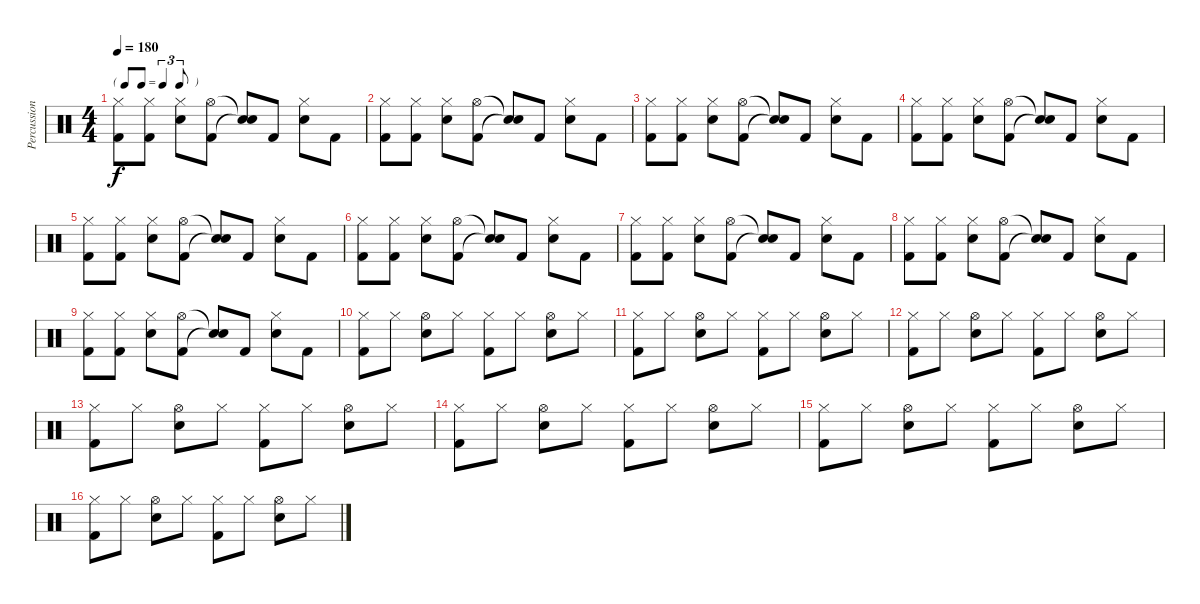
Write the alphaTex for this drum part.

\track ("Percussions" "Percussion") {instrument percussion}
\staff {score}
\articulation defaults
\ts (4 4)
\tf triplet8th
\tempo 180
\clef neutral
\ks c
("Hi-Hat (closed)" "Kick (hit) 2").8{dy f} ("Hi-Hat (closed)" "Kick (hit) 2").8 ("Hi-Hat (closed)" "Electric Snare (hit)").8 ("Hi-Hat (open)" "Kick (hit) 2").8 ("Snare (hit)"{t} "Snare (hit)"{t}).8 "Kick (hit) 2".8 ("Hi-Hat (closed)" "Electric Snare (hit)").8 "Kick (hit) 2".8 |
("Hi-Hat (closed)" "Kick (hit) 2").8 ("Hi-Hat (closed)" "Kick (hit) 2").8 ("Hi-Hat (closed)" "Electric Snare (hit)").8 ("Hi-Hat (open)" "Kick (hit) 2").8 ("Snare (hit)"{t} "Snare (hit)"{t}).8 "Kick (hit) 2".8 ("Hi-Hat (closed)" "Electric Snare (hit)").8 "Kick (hit) 2".8 |
("Hi-Hat (closed)" "Kick (hit) 2").8 ("Hi-Hat (closed)" "Kick (hit) 2").8 ("Hi-Hat (closed)" "Electric Snare (hit)").8 ("Hi-Hat (open)" "Kick (hit) 2").8 ("Snare (hit)"{t} "Snare (hit)"{t}).8 "Kick (hit) 2".8 ("Hi-Hat (closed)" "Electric Snare (hit)").8 "Kick (hit) 2".8 |
("Hi-Hat (closed)" "Kick (hit) 2").8 ("Hi-Hat (closed)" "Kick (hit) 2").8 ("Hi-Hat (closed)" "Electric Snare (hit)").8 ("Hi-Hat (open)" "Kick (hit) 2").8 ("Snare (hit)"{t} "Snare (hit)"{t}).8 "Kick (hit) 2".8 ("Hi-Hat (closed)" "Electric Snare (hit)").8 "Kick (hit) 2".8 |
("Hi-Hat (closed)" "Kick (hit) 2").8 ("Hi-Hat (closed)" "Kick (hit) 2").8 ("Hi-Hat (closed)" "Electric Snare (hit)").8 ("Hi-Hat (open)" "Kick (hit) 2").8 ("Snare (hit)"{t} "Snare (hit)"{t}).8 "Kick (hit) 2".8 ("Hi-Hat (closed)" "Electric Snare (hit)").8 "Kick (hit) 2".8 |
("Hi-Hat (closed)" "Kick (hit) 2").8 ("Hi-Hat (closed)" "Kick (hit) 2").8 ("Hi-Hat (closed)" "Electric Snare (hit)").8 ("Hi-Hat (open)" "Kick (hit) 2").8 ("Snare (hit)"{t} "Snare (hit)"{t}).8 "Kick (hit) 2".8 ("Hi-Hat (closed)" "Electric Snare (hit)").8 "Kick (hit) 2".8 |
("Hi-Hat (closed)" "Kick (hit) 2").8 ("Hi-Hat (closed)" "Kick (hit) 2").8 ("Hi-Hat (closed)" "Electric Snare (hit)").8 ("Hi-Hat (open)" "Kick (hit) 2").8 ("Snare (hit)"{t} "Snare (hit)"{t}).8 "Kick (hit) 2".8 ("Hi-Hat (closed)" "Electric Snare (hit)").8 "Kick (hit) 2".8 |
("Hi-Hat (closed)" "Kick (hit) 2").8 ("Hi-Hat (closed)" "Kick (hit) 2").8 ("Hi-Hat (closed)" "Electric Snare (hit)").8 ("Hi-Hat (open)" "Kick (hit) 2").8 ("Snare (hit)"{t} "Snare (hit)"{t}).8 "Kick (hit) 2".8 ("Hi-Hat (closed)" "Electric Snare (hit)").8 "Kick (hit) 2".8 |
("Hi-Hat (closed)" "Kick (hit) 2").8 ("Hi-Hat (closed)" "Kick (hit) 2").8 ("Hi-Hat (closed)" "Electric Snare (hit)").8 ("Hi-Hat (open)" "Kick (hit) 2").8 ("Snare (hit)"{t} "Snare (hit)"{t}).8 "Kick (hit) 2".8 ("Hi-Hat (closed)" "Electric Snare (hit)").8 "Kick (hit) 2".8 |
("Hi-Hat (closed)" "Kick (hit) 2").8 "Hi-Hat (closed)".8 ("Hi-Hat (open)" "Snare (hit) 2").8 "Hi-Hat (closed)".8 ("Hi-Hat (closed)" "Kick (hit) 2").8 "Hi-Hat (closed)".8 ("Hi-Hat (open)" "Snare (hit) 2").8 "Hi-Hat (closed)".8 |
("Hi-Hat (closed)" "Kick (hit) 2").8 "Hi-Hat (closed)".8 ("Hi-Hat (open)" "Snare (hit) 2").8 "Hi-Hat (closed)".8 ("Hi-Hat (closed)" "Kick (hit) 2").8 "Hi-Hat (closed)".8 ("Hi-Hat (open)" "Snare (hit) 2").8 "Hi-Hat (closed)".8 |
("Hi-Hat (closed)" "Kick (hit) 2").8 "Hi-Hat (closed)".8 ("Hi-Hat (open)" "Snare (hit) 2").8 "Hi-Hat (closed)".8 ("Hi-Hat (closed)" "Kick (hit) 2").8 "Hi-Hat (closed)".8 ("Hi-Hat (open)" "Snare (hit) 2").8 "Hi-Hat (closed)".8 |
("Hi-Hat (closed)" "Kick (hit) 2").8 "Hi-Hat (closed)".8 ("Hi-Hat (open)" "Snare (hit) 2").8 "Hi-Hat (closed)".8 ("Hi-Hat (closed)" "Kick (hit) 2").8 "Hi-Hat (closed)".8 ("Hi-Hat (open)" "Snare (hit) 2").8 "Hi-Hat (closed)".8 |
("Hi-Hat (closed)" "Kick (hit) 2").8 "Hi-Hat (closed)".8 ("Hi-Hat (open)" "Snare (hit) 2").8 "Hi-Hat (closed)".8 ("Hi-Hat (closed)" "Kick (hit) 2").8 "Hi-Hat (closed)".8 ("Hi-Hat (open)" "Snare (hit) 2").8 "Hi-Hat (closed)".8 |
("Hi-Hat (closed)" "Kick (hit) 2").8 "Hi-Hat (closed)".8 ("Hi-Hat (open)" "Snare (hit) 2").8 "Hi-Hat (closed)".8 ("Hi-Hat (closed)" "Kick (hit) 2").8 "Hi-Hat (closed)".8 ("Hi-Hat (open)" "Snare (hit) 2").8 "Hi-Hat (closed)".8 |
("Hi-Hat (closed)" "Kick (hit) 2").8 "Hi-Hat (closed)".8 ("Hi-Hat (open)" "Snare (hit) 2").8 "Hi-Hat (closed)".8 ("Hi-Hat (closed)" "Kick (hit) 2").8 "Hi-Hat (closed)".8 ("Hi-Hat (open)" "Snare (hit) 2").8 "Hi-Hat (closed)".8
